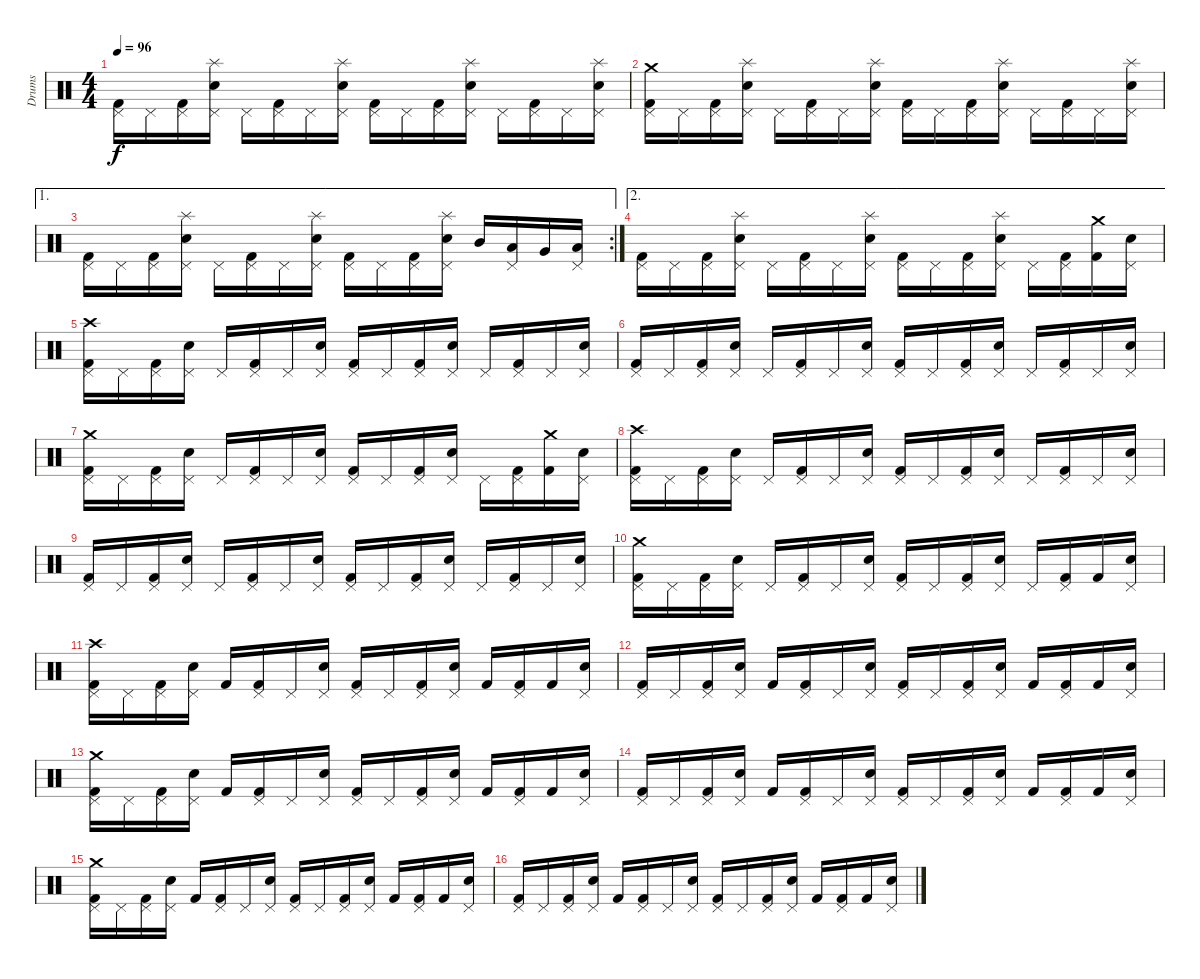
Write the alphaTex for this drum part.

\track ("Drums" "Drums") {instrument percussion}
\staff {score}
\articulation defaults
\ts (4 4)
\tempo 96
\clef neutral
\ks c
("Kick (hit) 2" "Pedal Hi-Hat (hit)").16{dy f} "Pedal Hi-Hat (hit)".16 ("Kick (hit) 2" "Pedal Hi-Hat (hit)").16 ("Snare (hit) 2" "Pedal Hi-Hat (hit)" "Splash (hit)").16 "Pedal Hi-Hat (hit)".16 ("Kick (hit) 2" "Pedal Hi-Hat (hit)").16 "Pedal Hi-Hat (hit)".16 ("Snare (hit) 2" "Pedal Hi-Hat (hit)" "Splash (hit)").16 ("Kick (hit) 2" "Pedal Hi-Hat (hit)").16 "Pedal Hi-Hat (hit)".16 ("Kick (hit) 2" "Pedal Hi-Hat (hit)").16 ("Snare (hit) 2" "Pedal Hi-Hat (hit)" "Splash (hit)").16 "Pedal Hi-Hat (hit)".16 ("Kick (hit) 2" "Pedal Hi-Hat (hit)").16 "Pedal Hi-Hat (hit)".16 ("Snare (hit) 2" "Pedal Hi-Hat (hit)" "Splash (hit)").16 |
("Kick (hit) 2" "Pedal Hi-Hat (hit)" "Crash medium (hit)").16 "Pedal Hi-Hat (hit)".16 ("Kick (hit) 2" "Pedal Hi-Hat (hit)").16 ("Snare (hit) 2" "Pedal Hi-Hat (hit)" "Splash (hit)").16 "Pedal Hi-Hat (hit)".16 ("Kick (hit) 2" "Pedal Hi-Hat (hit)").16 "Pedal Hi-Hat (hit)".16 ("Snare (hit) 2" "Pedal Hi-Hat (hit)" "Splash (hit)").16 ("Kick (hit) 2" "Pedal Hi-Hat (hit)").16 "Pedal Hi-Hat (hit)".16 ("Kick (hit) 2" "Pedal Hi-Hat (hit)").16 ("Snare (hit) 2" "Pedal Hi-Hat (hit)" "Splash (hit)").16 "Pedal Hi-Hat (hit)".16 ("Kick (hit) 2" "Pedal Hi-Hat (hit)").16 "Pedal Hi-Hat (hit)".16 ("Snare (hit) 2" "Pedal Hi-Hat (hit)" "Splash (hit)").16 |
\ae 1
\rc 2
("Kick (hit) 2" "Pedal Hi-Hat (hit)").16 "Pedal Hi-Hat (hit)".16 ("Kick (hit) 2" "Pedal Hi-Hat (hit)").16 ("Snare (hit) 2" "Pedal Hi-Hat (hit)" "Splash (hit)").16 "Pedal Hi-Hat (hit)".16 ("Kick (hit) 2" "Pedal Hi-Hat (hit)").16 "Pedal Hi-Hat (hit)".16 ("Snare (hit) 2" "Pedal Hi-Hat (hit)" "Splash (hit)").16 ("Kick (hit) 2" "Pedal Hi-Hat (hit)").16 "Pedal Hi-Hat (hit)".16 ("Kick (hit) 2" "Pedal Hi-Hat (hit)").16 ("Snare (hit) 2" "Pedal Hi-Hat (hit)" "Splash (hit)").16 "Mid Tom (hit)".16 ("Low Tom (hit)" "Pedal Hi-Hat (hit)").16 "Very Low Tom (hit)".16 ("Low Floor Tom (hit)" "Pedal Hi-Hat (hit)").16 |
\ae 2
("Kick (hit) 2" "Pedal Hi-Hat (hit)").16 "Pedal Hi-Hat (hit)".16 ("Kick (hit) 2" "Pedal Hi-Hat (hit)").16 ("Snare (hit) 2" "Pedal Hi-Hat (hit)" "Splash (hit)").16 "Pedal Hi-Hat (hit)".16 ("Kick (hit) 2" "Pedal Hi-Hat (hit)").16 "Pedal Hi-Hat (hit)".16 ("Snare (hit) 2" "Pedal Hi-Hat (hit)" "Splash (hit)").16 ("Kick (hit) 2" "Pedal Hi-Hat (hit)").16 "Pedal Hi-Hat (hit)".16 ("Kick (hit) 2" "Pedal Hi-Hat (hit)").16 ("Snare (hit) 2" "Pedal Hi-Hat (hit)" "Splash (hit)").16 "Pedal Hi-Hat (hit)".16 ("Kick (hit) 2" "Pedal Hi-Hat (hit)").16 ("Kick (hit) 2" "Crash medium (hit)").16 ("Snare (hit) 2" "Pedal Hi-Hat (hit)").16 |
("Kick (hit) 2" "Pedal Hi-Hat (hit)" "Crash high (hit)").16 "Pedal Hi-Hat (hit)".16 ("Kick (hit) 2" "Pedal Hi-Hat (hit)").16 ("Snare (hit) 2" "Pedal Hi-Hat (hit)").16 "Pedal Hi-Hat (hit)".16 ("Kick (hit) 2" "Pedal Hi-Hat (hit)").16 "Pedal Hi-Hat (hit)".16 ("Snare (hit) 2" "Pedal Hi-Hat (hit)").16 ("Kick (hit) 2" "Pedal Hi-Hat (hit)").16 "Pedal Hi-Hat (hit)".16 ("Kick (hit) 2" "Pedal Hi-Hat (hit)").16 ("Snare (hit) 2" "Pedal Hi-Hat (hit)").16 "Pedal Hi-Hat (hit)".16 ("Kick (hit) 2" "Pedal Hi-Hat (hit)").16 "Pedal Hi-Hat (hit)".16 ("Snare (hit) 2" "Pedal Hi-Hat (hit)").16 |
("Kick (hit) 2" "Pedal Hi-Hat (hit)").16 "Pedal Hi-Hat (hit)".16 ("Kick (hit) 2" "Pedal Hi-Hat (hit)").16 ("Snare (hit) 2" "Pedal Hi-Hat (hit)").16 "Pedal Hi-Hat (hit)".16 ("Kick (hit) 2" "Pedal Hi-Hat (hit)").16 "Pedal Hi-Hat (hit)".16 ("Snare (hit) 2" "Pedal Hi-Hat (hit)").16 ("Kick (hit) 2" "Pedal Hi-Hat (hit)").16 "Pedal Hi-Hat (hit)".16 ("Kick (hit) 2" "Pedal Hi-Hat (hit)").16 ("Snare (hit) 2" "Pedal Hi-Hat (hit)").16 "Pedal Hi-Hat (hit)".16 ("Kick (hit) 2" "Pedal Hi-Hat (hit)").16 "Pedal Hi-Hat (hit)".16 ("Snare (hit) 2" "Pedal Hi-Hat (hit)").16 |
("Kick (hit) 2" "Pedal Hi-Hat (hit)" "Crash medium (hit)").16 "Pedal Hi-Hat (hit)".16 ("Kick (hit) 2" "Pedal Hi-Hat (hit)").16 ("Snare (hit) 2" "Pedal Hi-Hat (hit)").16 "Pedal Hi-Hat (hit)".16 ("Kick (hit) 2" "Pedal Hi-Hat (hit)").16 "Pedal Hi-Hat (hit)".16 ("Snare (hit) 2" "Pedal Hi-Hat (hit)").16 ("Kick (hit) 2" "Pedal Hi-Hat (hit)").16 "Pedal Hi-Hat (hit)".16 ("Kick (hit) 2" "Pedal Hi-Hat (hit)").16 ("Snare (hit) 2" "Pedal Hi-Hat (hit)").16 "Pedal Hi-Hat (hit)".16 ("Kick (hit) 2" "Pedal Hi-Hat (hit)").16 ("Kick (hit) 2" "Crash medium (hit)").16 ("Snare (hit) 2" "Pedal Hi-Hat (hit)").16 |
("Kick (hit) 2" "Pedal Hi-Hat (hit)" "Crash high (hit)").16 "Pedal Hi-Hat (hit)".16 ("Kick (hit) 2" "Pedal Hi-Hat (hit)").16 ("Snare (hit) 2" "Pedal Hi-Hat (hit)").16 "Pedal Hi-Hat (hit)".16 ("Kick (hit) 2" "Pedal Hi-Hat (hit)").16 "Pedal Hi-Hat (hit)".16 ("Snare (hit) 2" "Pedal Hi-Hat (hit)").16 ("Kick (hit) 2" "Pedal Hi-Hat (hit)").16 "Pedal Hi-Hat (hit)".16 ("Kick (hit) 2" "Pedal Hi-Hat (hit)").16 ("Snare (hit) 2" "Pedal Hi-Hat (hit)").16 "Pedal Hi-Hat (hit)".16 ("Kick (hit) 2" "Pedal Hi-Hat (hit)").16 "Pedal Hi-Hat (hit)".16 ("Snare (hit) 2" "Pedal Hi-Hat (hit)").16 |
("Kick (hit) 2" "Pedal Hi-Hat (hit)").16 "Pedal Hi-Hat (hit)".16 ("Kick (hit) 2" "Pedal Hi-Hat (hit)").16 ("Snare (hit) 2" "Pedal Hi-Hat (hit)").16 "Pedal Hi-Hat (hit)".16 ("Kick (hit) 2" "Pedal Hi-Hat (hit)").16 "Pedal Hi-Hat (hit)".16 ("Snare (hit) 2" "Pedal Hi-Hat (hit)").16 ("Kick (hit) 2" "Pedal Hi-Hat (hit)").16 "Pedal Hi-Hat (hit)".16 ("Kick (hit) 2" "Pedal Hi-Hat (hit)").16 ("Snare (hit) 2" "Pedal Hi-Hat (hit)").16 "Pedal Hi-Hat (hit)".16 ("Kick (hit) 2" "Pedal Hi-Hat (hit)").16 "Pedal Hi-Hat (hit)".16 ("Snare (hit) 2" "Pedal Hi-Hat (hit)").16 |
("Kick (hit) 2" "Pedal Hi-Hat (hit)" "Crash medium (hit)").16 "Pedal Hi-Hat (hit)".16 ("Kick (hit) 2" "Pedal Hi-Hat (hit)").16 ("Snare (hit) 2" "Pedal Hi-Hat (hit)").16 "Pedal Hi-Hat (hit)".16 ("Kick (hit) 2" "Pedal Hi-Hat (hit)").16 "Pedal Hi-Hat (hit)".16 ("Snare (hit) 2" "Pedal Hi-Hat (hit)").16 ("Kick (hit) 2" "Pedal Hi-Hat (hit)").16 "Pedal Hi-Hat (hit)".16 ("Kick (hit) 2" "Pedal Hi-Hat (hit)").16 ("Snare (hit) 2" "Pedal Hi-Hat (hit)").16 "Pedal Hi-Hat (hit)".16 ("Kick (hit) 2" "Pedal Hi-Hat (hit)").16 "Kick (hit) 2".16 ("Snare (hit) 2" "Pedal Hi-Hat (hit)").16 |
("Kick (hit) 2" "Pedal Hi-Hat (hit)" "Crash high (hit)").16 "Pedal Hi-Hat (hit)".16 ("Kick (hit) 2" "Pedal Hi-Hat (hit)").16 ("Snare (hit) 2" "Pedal Hi-Hat (hit)").16 "Kick (hit) 2".16 ("Kick (hit) 2" "Pedal Hi-Hat (hit)").16 "Pedal Hi-Hat (hit)".16 ("Snare (hit) 2" "Pedal Hi-Hat (hit)").16 ("Kick (hit) 2" "Pedal Hi-Hat (hit)").16 "Pedal Hi-Hat (hit)".16 ("Kick (hit) 2" "Pedal Hi-Hat (hit)").16 ("Snare (hit) 2" "Pedal Hi-Hat (hit)").16 "Kick (hit) 2".16 ("Kick (hit) 2" "Pedal Hi-Hat (hit)").16 "Kick (hit) 2".16 ("Snare (hit) 2" "Pedal Hi-Hat (hit)").16 |
("Kick (hit) 2" "Pedal Hi-Hat (hit)").16 "Pedal Hi-Hat (hit)".16 ("Kick (hit) 2" "Pedal Hi-Hat (hit)").16 ("Snare (hit) 2" "Pedal Hi-Hat (hit)").16 "Kick (hit) 2".16 ("Kick (hit) 2" "Pedal Hi-Hat (hit)").16 "Pedal Hi-Hat (hit)".16 ("Snare (hit) 2" "Pedal Hi-Hat (hit)").16 ("Kick (hit) 2" "Pedal Hi-Hat (hit)").16 "Pedal Hi-Hat (hit)".16 ("Kick (hit) 2" "Pedal Hi-Hat (hit)").16 ("Snare (hit) 2" "Pedal Hi-Hat (hit)").16 "Kick (hit) 2".16 ("Kick (hit) 2" "Pedal Hi-Hat (hit)").16 "Kick (hit) 2".16 ("Snare (hit) 2" "Pedal Hi-Hat (hit)").16 |
("Kick (hit) 2" "Pedal Hi-Hat (hit)" "Crash medium (hit)").16 "Pedal Hi-Hat (hit)".16 ("Kick (hit) 2" "Pedal Hi-Hat (hit)").16 ("Snare (hit) 2" "Pedal Hi-Hat (hit)").16 "Kick (hit) 2".16 ("Kick (hit) 2" "Pedal Hi-Hat (hit)").16 "Pedal Hi-Hat (hit)".16 ("Snare (hit) 2" "Pedal Hi-Hat (hit)").16 ("Kick (hit) 2" "Pedal Hi-Hat (hit)").16 "Pedal Hi-Hat (hit)".16 ("Kick (hit) 2" "Pedal Hi-Hat (hit)").16 ("Snare (hit) 2" "Pedal Hi-Hat (hit)").16 "Kick (hit) 2".16 ("Kick (hit) 2" "Pedal Hi-Hat (hit)").16 "Kick (hit) 2".16 ("Snare (hit) 2" "Pedal Hi-Hat (hit)").16 |
("Kick (hit) 2" "Pedal Hi-Hat (hit)").16 "Pedal Hi-Hat (hit)".16 ("Kick (hit) 2" "Pedal Hi-Hat (hit)").16 ("Snare (hit) 2" "Pedal Hi-Hat (hit)").16 "Kick (hit) 2".16 ("Kick (hit) 2" "Pedal Hi-Hat (hit)").16 "Pedal Hi-Hat (hit)".16 ("Snare (hit) 2" "Pedal Hi-Hat (hit)").16 ("Kick (hit) 2" "Pedal Hi-Hat (hit)").16 "Pedal Hi-Hat (hit)".16 ("Kick (hit) 2" "Pedal Hi-Hat (hit)").16 ("Snare (hit) 2" "Pedal Hi-Hat (hit)").16 "Kick (hit) 2".16 ("Kick (hit) 2" "Pedal Hi-Hat (hit)").16 "Kick (hit) 2".16 ("Snare (hit) 2" "Pedal Hi-Hat (hit)").16 |
("Kick (hit) 2" "Pedal Hi-Hat (hit)" "Crash medium (hit)").16 "Pedal Hi-Hat (hit)".16 ("Kick (hit) 2" "Pedal Hi-Hat (hit)").16 ("Snare (hit) 2" "Pedal Hi-Hat (hit)").16 "Kick (hit) 2".16 ("Kick (hit) 2" "Pedal Hi-Hat (hit)").16 "Pedal Hi-Hat (hit)".16 ("Snare (hit) 2" "Pedal Hi-Hat (hit)").16 ("Kick (hit) 2" "Pedal Hi-Hat (hit)").16 "Pedal Hi-Hat (hit)".16 ("Kick (hit) 2" "Pedal Hi-Hat (hit)").16 ("Snare (hit) 2" "Pedal Hi-Hat (hit)").16 "Kick (hit) 2".16 ("Kick (hit) 2" "Pedal Hi-Hat (hit)").16 "Kick (hit) 2".16 ("Snare (hit) 2" "Pedal Hi-Hat (hit)").16 |
("Kick (hit) 2" "Pedal Hi-Hat (hit)").16 "Pedal Hi-Hat (hit)".16 ("Kick (hit) 2" "Pedal Hi-Hat (hit)").16 ("Snare (hit) 2" "Pedal Hi-Hat (hit)").16 "Kick (hit) 2".16 ("Kick (hit) 2" "Pedal Hi-Hat (hit)").16 "Pedal Hi-Hat (hit)".16 ("Snare (hit) 2" "Pedal Hi-Hat (hit)").16 ("Kick (hit) 2" "Pedal Hi-Hat (hit)").16 "Pedal Hi-Hat (hit)".16 ("Kick (hit) 2" "Pedal Hi-Hat (hit)").16 ("Snare (hit) 2" "Pedal Hi-Hat (hit)").16 "Kick (hit) 2".16 ("Kick (hit) 2" "Pedal Hi-Hat (hit)").16 "Kick (hit) 2".16 ("Snare (hit) 2" "Pedal Hi-Hat (hit)").16
